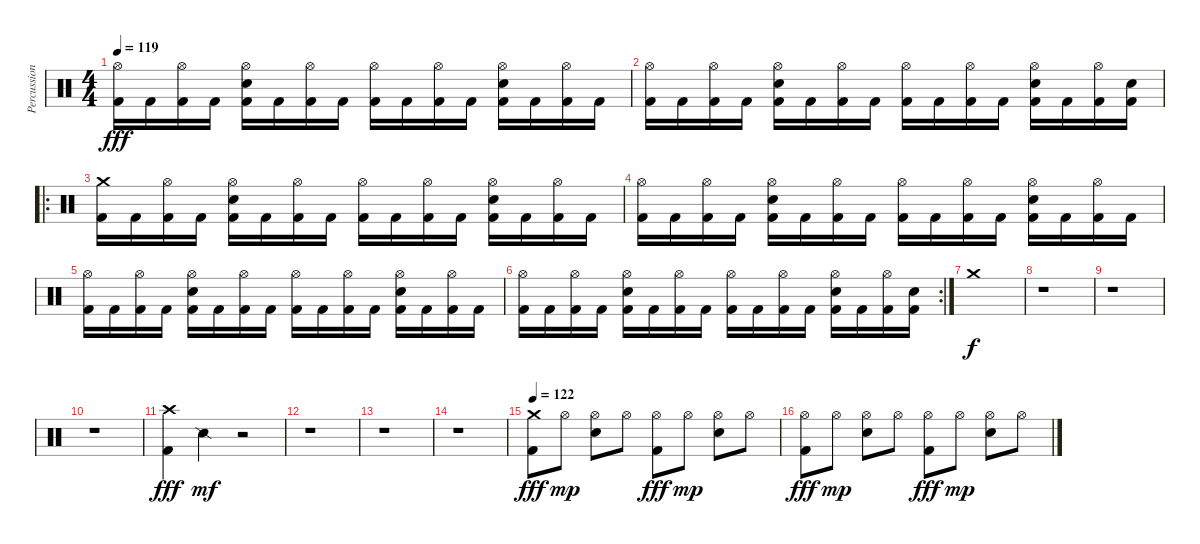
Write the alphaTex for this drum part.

\track ("Percussion" "Percussion") {instrument percussion}
\staff {score}
\articulation defaults
\ts (4 4)
\tempo 119
\clef neutral
\ks c
("Hi-Hat (open)" "Kick (hit) 2").16{dy fff} "Kick (hit) 2".16 ("Hi-Hat (open)" "Kick (hit) 2").16 "Kick (hit) 2".16 ("Hi-Hat (open)" "Electric Snare (hit)" "Kick (hit) 2").16 "Kick (hit) 2".16 ("Hi-Hat (open)" "Kick (hit) 2").16 "Kick (hit) 2".16 ("Hi-Hat (open)" "Kick (hit) 2").16 "Kick (hit) 2".16 ("Hi-Hat (open)" "Kick (hit) 2").16 "Kick (hit) 2".16 ("Hi-Hat (open)" "Electric Snare (hit)" "Kick (hit) 2").16 "Kick (hit) 2".16 ("Hi-Hat (open)" "Kick (hit) 2").16 "Kick (hit) 2".16 |
("Hi-Hat (open)" "Kick (hit) 2").16 "Kick (hit) 2".16 ("Hi-Hat (open)" "Kick (hit) 2").16 "Kick (hit) 2".16 ("Hi-Hat (open)" "Electric Snare (hit)" "Kick (hit) 2").16 "Kick (hit) 2".16 ("Hi-Hat (open)" "Kick (hit) 2").16 "Kick (hit) 2".16 ("Hi-Hat (open)" "Kick (hit) 2").16 "Kick (hit) 2".16 ("Hi-Hat (open)" "Kick (hit) 2").16 "Kick (hit) 2".16 ("Hi-Hat (open)" "Electric Snare (hit)" "Kick (hit) 2").16 "Kick (hit) 2".16 ("Hi-Hat (open)" "Kick (hit) 2").16 ("Electric Snare (hit)" "Kick (hit) 2").16 |
\ro
("Crash medium (hit)" "Kick (hit) 2").16 "Kick (hit) 2".16 ("Hi-Hat (open)" "Kick (hit) 2").16 "Kick (hit) 2".16 ("Hi-Hat (open)" "Electric Snare (hit)" "Kick (hit) 2").16 "Kick (hit) 2".16 ("Hi-Hat (open)" "Kick (hit) 2").16 "Kick (hit) 2".16 ("Hi-Hat (open)" "Kick (hit) 2").16 "Kick (hit) 2".16 ("Hi-Hat (open)" "Kick (hit) 2").16 "Kick (hit) 2".16 ("Hi-Hat (open)" "Electric Snare (hit)" "Kick (hit) 2").16 "Kick (hit) 2".16 ("Hi-Hat (open)" "Kick (hit) 2").16 "Kick (hit) 2".16 |
("Hi-Hat (open)" "Kick (hit) 2").16 "Kick (hit) 2".16 ("Hi-Hat (open)" "Kick (hit) 2").16 "Kick (hit) 2".16 ("Hi-Hat (open)" "Electric Snare (hit)" "Kick (hit) 2").16 "Kick (hit) 2".16 ("Hi-Hat (open)" "Kick (hit) 2").16 "Kick (hit) 2".16 ("Hi-Hat (open)" "Kick (hit) 2").16 "Kick (hit) 2".16 ("Hi-Hat (open)" "Kick (hit) 2").16 "Kick (hit) 2".16 ("Hi-Hat (open)" "Electric Snare (hit)" "Kick (hit) 2").16 "Kick (hit) 2".16 ("Hi-Hat (open)" "Kick (hit) 2").16 "Kick (hit) 2".16 |
("Hi-Hat (open)" "Kick (hit) 2").16 "Kick (hit) 2".16 ("Hi-Hat (open)" "Kick (hit) 2").16 "Kick (hit) 2".16 ("Hi-Hat (open)" "Electric Snare (hit)" "Kick (hit) 2").16 "Kick (hit) 2".16 ("Hi-Hat (open)" "Kick (hit) 2").16 "Kick (hit) 2".16 ("Hi-Hat (open)" "Kick (hit) 2").16 "Kick (hit) 2".16 ("Hi-Hat (open)" "Kick (hit) 2").16 "Kick (hit) 2".16 ("Hi-Hat (open)" "Electric Snare (hit)" "Kick (hit) 2").16 "Kick (hit) 2".16 ("Hi-Hat (open)" "Kick (hit) 2").16 "Kick (hit) 2".16 |
\rc 2
("Hi-Hat (open)" "Kick (hit) 2").16 "Kick (hit) 2".16 ("Hi-Hat (open)" "Kick (hit) 2").16 "Kick (hit) 2".16 ("Hi-Hat (open)" "Electric Snare (hit)" "Kick (hit) 2").16 "Kick (hit) 2".16 ("Hi-Hat (open)" "Kick (hit) 2").16 "Kick (hit) 2".16 ("Hi-Hat (open)" "Kick (hit) 2").16 "Kick (hit) 2".16 ("Hi-Hat (open)" "Kick (hit) 2").16 "Kick (hit) 2".16 ("Hi-Hat (open)" "Electric Snare (hit)" "Kick (hit) 2").16 "Kick (hit) 2".16 ("Hi-Hat (open)" "Kick (hit) 2").16 ("Electric Snare (hit)" "Kick (hit) 2").16 |
"Crash medium (hit)".1{dy f volume 11} |
r.1 |
r.1 |
r.1 |
("Crash high (hit)" "Kick (hit) 2").4{dy fff} "Snare (side stick) 2".4{dy mf} r.2 |
r.1 |
r.1 |
r.1 |
\tempo 122
("Crash medium (hit)" "Kick (hit) 2").8{dy fff} "Hi-Hat (open)".8{dy mp} ("Hi-Hat (open)" "Electric Snare (hit)").8 "Hi-Hat (open)".8 ("Hi-Hat (open)" "Kick (hit) 2").8{dy fff} "Hi-Hat (open)".8{dy mp} ("Hi-Hat (open)" "Electric Snare (hit)").8 "Hi-Hat (open)".8 |
("Hi-Hat (open)" "Kick (hit) 2").8{dy fff} "Hi-Hat (open)".8{dy mp} ("Hi-Hat (open)" "Electric Snare (hit)").8 "Hi-Hat (open)".8 ("Hi-Hat (open)" "Kick (hit) 2").8{dy fff} "Hi-Hat (open)".8{dy mp} ("Hi-Hat (open)" "Electric Snare (hit)").8 "Hi-Hat (open)".8
